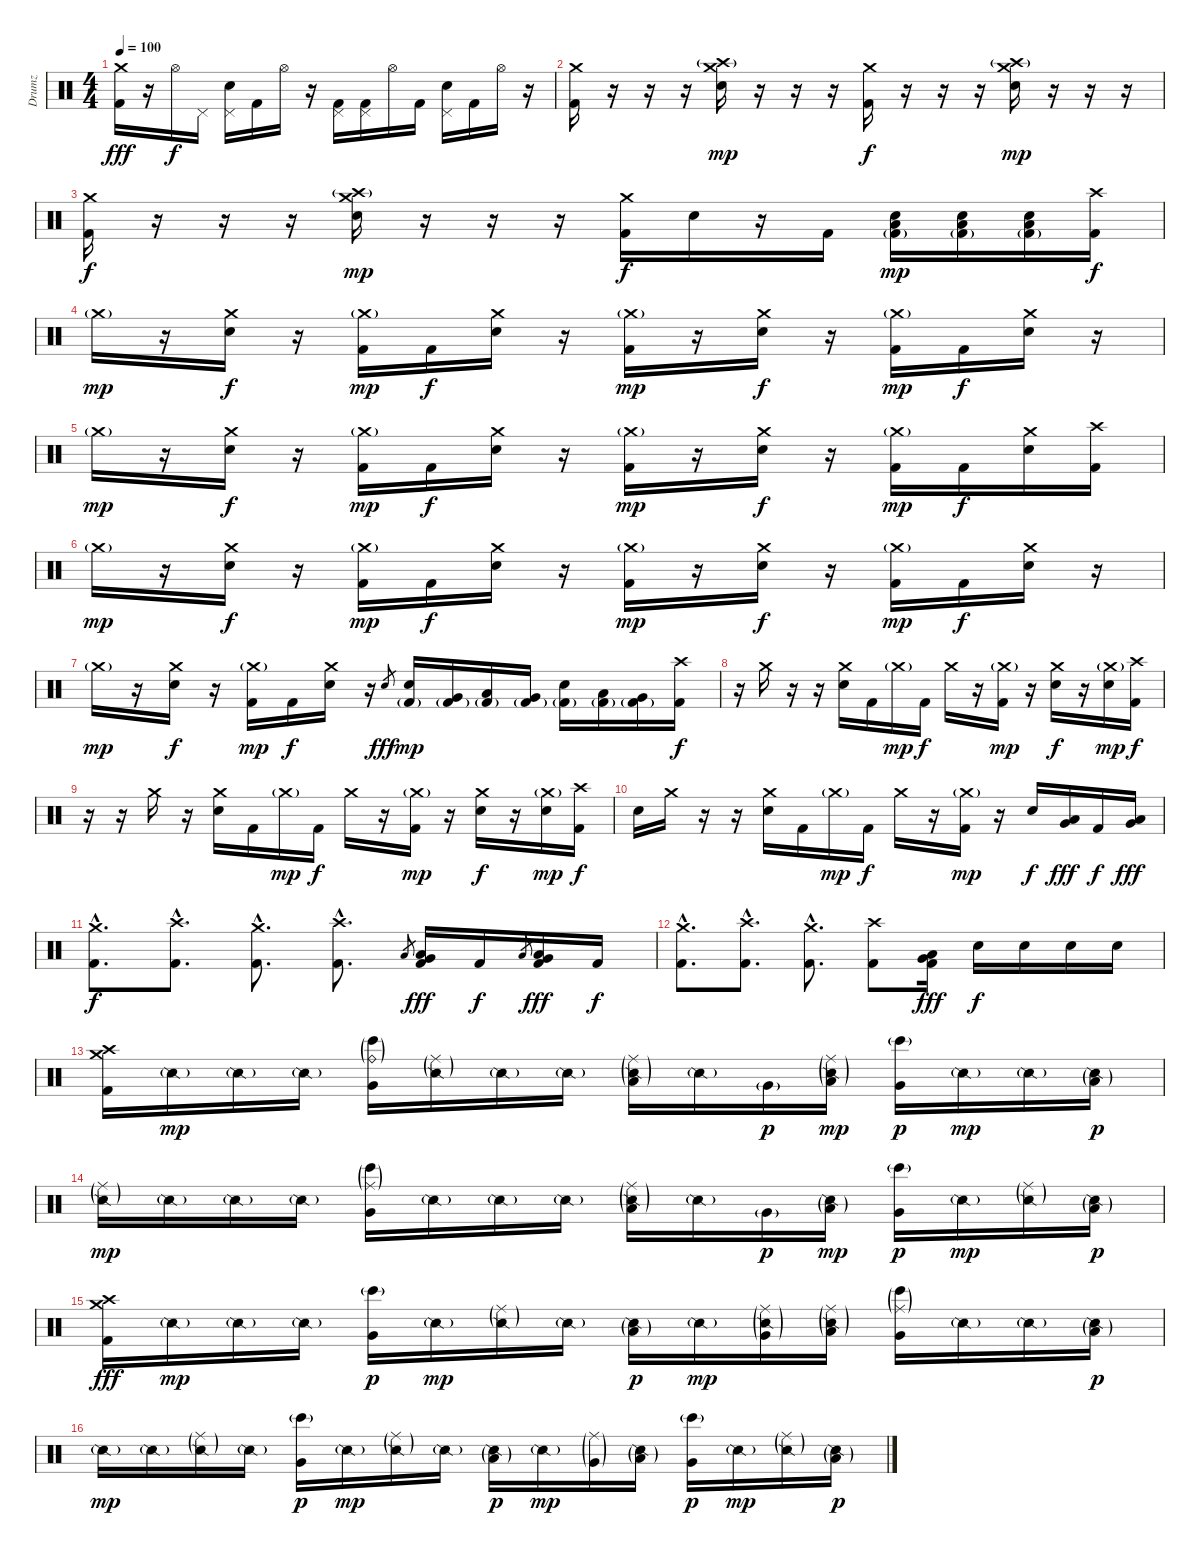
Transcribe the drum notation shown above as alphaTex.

\track ("Drumz" "Drumz") {instrument percussion}
\staff {score}
\articulation defaults
\ts (4 4)
\tempo 100
\clef neutral
\ks c
("Crash medium (hit)" "Kick (hit) 2").16{dy fff} r.16 "Hi-Hat (open)".16{dy f} "Pedal Hi-Hat (hit)".16 ("Pedal Hi-Hat (hit)" "Electric Snare (hit)").16 "Kick (hit) 2".16 "Hi-Hat (open)".16 r.16 ("Pedal Hi-Hat (hit)" "Kick (hit) 2").16 ("Pedal Hi-Hat (hit)" "Kick (hit) 2").16 "Hi-Hat (open)".16 "Kick (hit) 2".16 ("Pedal Hi-Hat (hit)" "Electric Snare (hit)").16 "Kick (hit) 2".16 "Hi-Hat (open)".16 r.16 |
("Crash medium (hit)" "Kick (hit) 2").16 r.16 r.16 r.16 ("Crash medium (hit)" "Crash high (hit)"{g} "Electric Snare (hit)").16{dy mp} r.16 r.16 r.16 ("Crash medium (hit)" "Kick (hit) 2").16{dy f} r.16 r.16 r.16 ("Crash medium (hit)" "Crash high (hit)"{g} "Electric Snare (hit)").16{dy mp} r.16 r.16 r.16 |
("Crash medium (hit)" "Kick (hit) 2").16{dy f} r.16 r.16 r.16 ("Crash medium (hit)" "Crash high (hit)"{g} "Electric Snare (hit)").16{dy mp} r.16 r.16 r.16 ("Crash medium (hit)" "Kick (hit) 2").16{dy f} "Electric Snare (hit)".16 r.16 "Kick (hit) 2".16 ("Electric Snare (hit)" "Low Floor Tom (hit)" "Kick (hit) 2"{g}).16{dy mp} ("Electric Snare (hit)" "Low Floor Tom (hit)" "Kick (hit) 2"{g}).16 ("Electric Snare (hit)" "Low Floor Tom (hit)" "Kick (hit) 2"{g}).16 ("Crash high (hit)" "Kick (hit) 2").16{dy f} |
"Crash medium (hit)"{g}.16{dy mp} r.16 ("Crash medium (hit)" "Electric Snare (hit)").16{dy f} r.16 ("Crash medium (hit)"{g} "Kick (hit) 2").16{dy mp} "Kick (hit) 2".16{dy f} ("Crash medium (hit)" "Electric Snare (hit)").16 r.16 ("Crash medium (hit)"{g} "Kick (hit) 2").16{dy mp} r.16 ("Crash medium (hit)" "Electric Snare (hit)").16{dy f} r.16 ("Crash medium (hit)"{g} "Kick (hit) 2").16{dy mp} "Kick (hit) 2".16{dy f} ("Crash medium (hit)" "Electric Snare (hit)").16 r.16 |
"Crash medium (hit)"{g}.16{dy mp} r.16 ("Crash medium (hit)" "Electric Snare (hit)").16{dy f} r.16 ("Crash medium (hit)"{g} "Kick (hit) 2").16{dy mp} "Kick (hit) 2".16{dy f} ("Crash medium (hit)" "Electric Snare (hit)").16 r.16 ("Crash medium (hit)"{g} "Kick (hit) 2").16{dy mp} r.16 ("Crash medium (hit)" "Electric Snare (hit)").16{dy f} r.16 ("Crash medium (hit)"{g} "Kick (hit) 2").16{dy mp} "Kick (hit) 2".16{dy f} ("Crash medium (hit)" "Electric Snare (hit)").16 ("Crash high (hit)" "Kick (hit) 2").16 |
"Crash medium (hit)"{g}.16{dy mp} r.16 ("Crash medium (hit)" "Electric Snare (hit)").16{dy f} r.16 ("Crash medium (hit)"{g} "Kick (hit) 2").16{dy mp} "Kick (hit) 2".16{dy f} ("Crash medium (hit)" "Electric Snare (hit)").16 r.16 ("Crash medium (hit)"{g} "Kick (hit) 2").16{dy mp} r.16 ("Crash medium (hit)" "Electric Snare (hit)").16{dy f} r.16 ("Crash medium (hit)"{g} "Kick (hit) 2").16{dy mp} "Kick (hit) 2".16{dy f} ("Crash medium (hit)" "Electric Snare (hit)").16 r.16 |
"Crash medium (hit)"{g}.16{dy mp} r.16 ("Crash medium (hit)" "Electric Snare (hit)").16{dy f} r.16 ("Crash medium (hit)"{g} "Kick (hit) 2").16{dy mp} "Kick (hit) 2".16{dy f} ("Crash medium (hit)" "Electric Snare (hit)").16 r.16 "Electric Snare (hit)".8{gr dy fff} ("Electric Snare (hit)" "Kick (hit) 2"{g}).16{dy mp} ("Very Low Tom (hit)" "Kick (hit) 2"{g}).16 ("Low Floor Tom (hit)" "Kick (hit) 2"{g}).16 ("Very Low Tom (hit)" "Kick (hit) 2"{g}).16 ("Electric Snare (hit)" "Kick (hit) 2"{g}).16 ("Low Tom (hit)" "Kick (hit) 2"{g}).16 ("Very Low Tom (hit)" "Kick (hit) 2"{g}).16 ("Crash high (hit)" "Kick (hit) 2").16{dy f} |
r.16 "Crash medium (hit)".16 r.16 r.16 ("Crash medium (hit)" "Electric Snare (hit)").16 "Kick (hit) 2".16 "Crash medium (hit)"{g}.16{dy mp} "Kick (hit) 2".16{dy f} "Crash medium (hit)".16 r.16 ("Crash medium (hit)"{g} "Kick (hit) 2").16{dy mp} r.16 ("Crash medium (hit)" "Electric Snare (hit)").16{dy f} r.16 ("Crash medium (hit)"{g} "Electric Snare (hit)").16{dy mp} ("Crash high (hit)" "Kick (hit) 2").16{dy f} |
r.16 r.16 "Crash medium (hit)".16 r.16 ("Crash medium (hit)" "Electric Snare (hit)").16 "Kick (hit) 2".16 "Crash medium (hit)"{g}.16{dy mp} "Kick (hit) 2".16{dy f} "Crash medium (hit)".16 r.16 ("Crash medium (hit)"{g} "Kick (hit) 2").16{dy mp} r.16 ("Crash medium (hit)" "Electric Snare (hit)").16{dy f} r.16 ("Crash medium (hit)"{g} "Electric Snare (hit)").16{dy mp} ("Crash high (hit)" "Kick (hit) 2").16{dy f} |
"Electric Snare (hit)".16 "Crash medium (hit)".16 r.16 r.16 ("Crash medium (hit)" "Electric Snare (hit)").16 "Kick (hit) 2".16 "Crash medium (hit)"{g}.16{dy mp} "Kick (hit) 2".16{dy f} "Crash medium (hit)".16 r.16 ("Crash medium (hit)"{g} "Kick (hit) 2").16{dy mp} r.16 "Electric Snare (hit)".16{dy f} ("Low Floor Tom (hit)" "Very Low Tom (hit)").16{dy fff} "Kick (hit) 2".16{dy f} ("Low Floor Tom (hit)" "Very Low Tom (hit)").16{dy fff} |
("Crash medium (hit)"{hac} "Kick (hit) 2"{hac}).8{d dy f} ("Crash high (hit)"{hac} "Kick (hit) 2"{hac}).8{d} ("Crash medium (hit)"{hac} "Kick (hit) 2"{hac}).8{d} ("Crash high (hit)"{hac} "Kick (hit) 2"{hac}).8{d} "Low Floor Tom (hit)".8{gr} ("Very Low Tom (hit)" "Low Floor Tom (hit)" "Kick (hit) 2").16{dy fff} "Kick (hit) 2".16{dy f} "Low Floor Tom (hit)".8{gr} ("Very Low Tom (hit)" "Low Floor Tom (hit)" "Kick (hit) 2").16{dy fff} "Kick (hit) 2".16{dy f} |
("Crash medium (hit)"{hac} "Kick (hit) 2"{hac}).8{d} ("Crash high (hit)"{hac} "Kick (hit) 2"{hac}).8{d} ("Crash medium (hit)"{hac} "Kick (hit) 2"{hac}).8{d} ("Crash high (hit)" "Kick (hit) 2").8 ("Low Floor Tom (hit)" "Very Low Tom (hit)" "Kick (hit) 2").16{dy fff} "Electric Snare (hit)".16{dy f} "Electric Snare (hit)".16 "Electric Snare (hit)".16 "Electric Snare (hit)".16 |
("Crash medium (hit)" "Crash high (hit)" "Kick (hit) 2").16 "Snare (side stick) 2"{g}.16{dy mp} "Snare (side stick) 2"{g}.16 "Snare (side stick) 2"{g}.16 ("Bongo High (hit)"{g} "Very Low Tom (hit)" "Ride (bell)"{g}).16 ("Snare (side stick) 2"{g} "Ride (middle)"{g}).16 "Snare (side stick) 2"{g}.16 "Snare (side stick) 2"{g}.16 ("Snare (side stick) 2"{g} "Low Floor Tom (hit)"{g} "Ride (middle)"{g}).16 "Snare (side stick) 2"{g}.16 "Very Low Tom (hit)"{g}.16{dy p} ("Snare (side stick) 2"{g} "Low Floor Tom (hit)"{g} "Ride (middle)"{g}).16{dy mp} ("Bongo High (hit)"{g} "Very Low Tom (hit)").16{dy p} "Snare (side stick) 2"{g}.16{dy mp} "Snare (side stick) 2"{g}.16 ("Snare (side stick) 2"{g} "Low Floor Tom (hit)"{g}).16{dy p} |
("Snare (side stick) 2"{g} "Ride (middle)"{g}).16{dy mp} "Snare (side stick) 2"{g}.16 "Snare (side stick) 2"{g}.16 "Snare (side stick) 2"{g}.16 ("Bongo High (hit)"{g} "Very Low Tom (hit)" "Ride (middle)"{g}).16 "Snare (side stick) 2"{g}.16 "Snare (side stick) 2"{g}.16 "Snare (side stick) 2"{g}.16 ("Snare (side stick) 2"{g} "Low Floor Tom (hit)"{g} "Ride (middle)"{g}).16 "Snare (side stick) 2"{g}.16 "Very Low Tom (hit)"{g}.16{dy p} ("Snare (side stick) 2"{g} "Low Floor Tom (hit)"{g}).16{dy mp} ("Bongo High (hit)"{g} "Very Low Tom (hit)").16{dy p} "Snare (side stick) 2"{g}.16{dy mp} ("Snare (side stick) 2"{g} "Ride (middle)"{g}).16 ("Snare (side stick) 2"{g} "Low Floor Tom (hit)"{g}).16{dy p} |
("Crash medium (hit)" "Crash high (hit)" "Kick (hit) 2").16{dy fff} "Snare (side stick) 2"{g}.16{dy mp} "Snare (side stick) 2"{g}.16 "Snare (side stick) 2"{g}.16 ("Bongo High (hit)"{g} "Very Low Tom (hit)").16{dy p} "Snare (side stick) 2"{g}.16{dy mp} ("Snare (side stick) 2"{g} "Ride (middle)"{g}).16 "Snare (side stick) 2"{g}.16 ("Snare (side stick) 2"{g} "Low Floor Tom (hit)"{g}).16{dy p} "Snare (side stick) 2"{g}.16{dy mp} ("Snare (side stick) 2"{g} "Very Low Tom (hit)"{g} "Ride (middle)"{g}).16 ("Snare (side stick) 2"{g} "Low Floor Tom (hit)"{g} "Ride (middle)"{g}).16 ("Bongo High (hit)"{g} "Very Low Tom (hit)" "Ride (middle)"{g}).16 "Snare (side stick) 2"{g}.16 "Snare (side stick) 2"{g}.16 ("Snare (side stick) 2"{g} "Low Floor Tom (hit)"{g}).16{dy p} |
"Snare (side stick) 2"{g}.16{dy mp} "Snare (side stick) 2"{g}.16 ("Snare (side stick) 2"{g} "Ride (middle)"{g}).16 "Snare (side stick) 2"{g}.16 ("Bongo High (hit)"{g} "Very Low Tom (hit)").16{dy p} "Snare (side stick) 2"{g}.16{dy mp} ("Snare (side stick) 2"{g} "Ride (middle)"{g}).16 "Snare (side stick) 2"{g}.16 ("Snare (side stick) 2"{g} "Low Floor Tom (hit)"{g}).16{dy p} "Snare (side stick) 2"{g}.16{dy mp} ("Very Low Tom (hit)"{g} "Ride (middle)"{g}).16 ("Snare (side stick) 2"{g} "Low Floor Tom (hit)"{g}).16 ("Bongo High (hit)"{g} "Very Low Tom (hit)").16{dy p} "Snare (side stick) 2"{g}.16{dy mp} ("Snare (side stick) 2"{g} "Ride (middle)"{g}).16 ("Snare (side stick) 2"{g} "Low Floor Tom (hit)"{g}).16{dy p}
